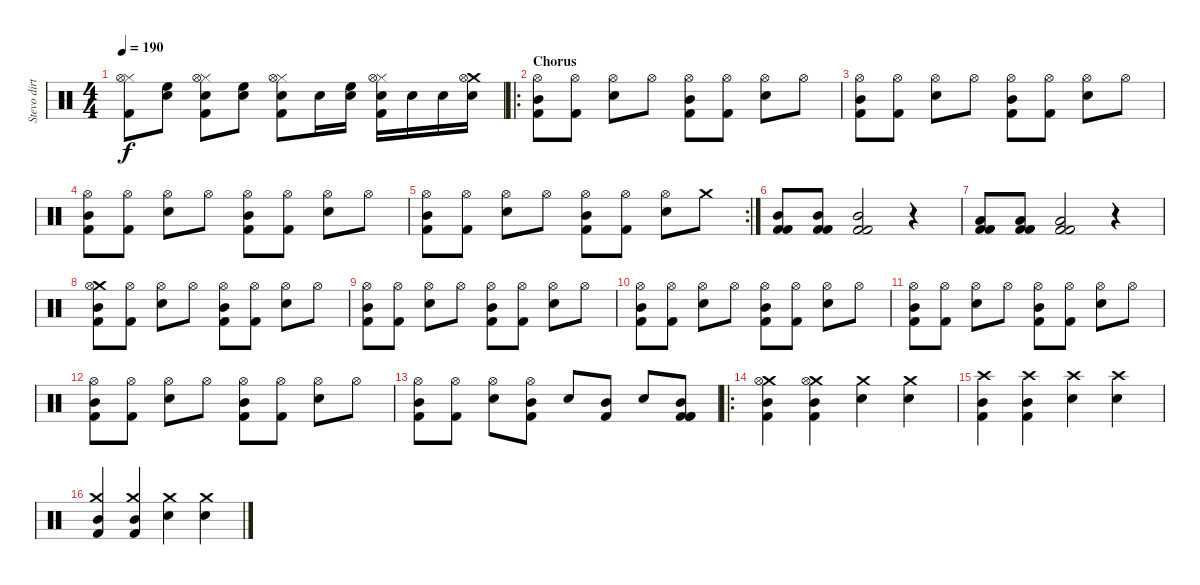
\track ("Stevo dirty poo (drummer)" "Stevo dirt") {instrument percussion}
\staff {score}
\articulation defaults
\ts (4 4)
\tempo 190
\clef neutral
\ks c
("Hi-Hat (closed)" "Hi-Hat (open)" "Kick (hit) 2").8{dy f} ("High Floor Tom (hit)" "Snare (hit) 2").8 ("Hi-Hat (closed)" "Snare (hit) 2" "Hi-Hat (open)" "Kick (hit) 2").8 ("High Floor Tom (hit)" "Snare (hit) 2").8 ("Hi-Hat (closed)" "Snare (hit) 2" "Hi-Hat (open)" "Kick (hit) 2").8 "Snare (hit) 2".16 ("High Floor Tom (hit)" "Snare (hit) 2").16 ("Hi-Hat (closed)" "Snare (hit) 2" "Hi-Hat (open)" "Kick (hit) 2").16 "Snare (hit) 2".16 "Snare (hit) 2".16 ("Crash medium (hit)" "Snare (hit) 2" "Hi-Hat (open)").16 |
\ro
\section ("" "Chorus")
("Mid Tom (hit)" "Hi-Hat (open)" "Kick (hit) 2").8 ("Hi-Hat (open)" "Kick (hit) 2").8 ("Snare (hit) 2" "Hi-Hat (open)").8 "Hi-Hat (open)".8 ("Mid Tom (hit)" "Hi-Hat (open)" "Kick (hit) 2").8 ("Hi-Hat (open)" "Kick (hit) 2").8 ("Snare (hit) 2" "Hi-Hat (open)").8 "Hi-Hat (open)".8 |
("Mid Tom (hit)" "Hi-Hat (open)" "Kick (hit) 2").8 ("Hi-Hat (open)" "Kick (hit) 2").8 ("Snare (hit) 2" "Hi-Hat (open)").8 "Hi-Hat (open)".8 ("Mid Tom (hit)" "Hi-Hat (open)" "Kick (hit) 2").8 ("Hi-Hat (open)" "Kick (hit) 2").8 ("Snare (hit) 2" "Hi-Hat (open)").8 "Hi-Hat (open)".8 |
("Mid Tom (hit)" "Hi-Hat (open)" "Kick (hit) 2").8 ("Hi-Hat (open)" "Kick (hit) 2").8 ("Snare (hit) 2" "Hi-Hat (open)").8 "Hi-Hat (open)".8 ("Mid Tom (hit)" "Hi-Hat (open)" "Kick (hit) 2").8 ("Hi-Hat (open)" "Kick (hit) 2").8 ("Snare (hit) 2" "Hi-Hat (open)").8 "Hi-Hat (open)".8 |
\rc 2
("Mid Tom (hit)" "Hi-Hat (open)" "Kick (hit) 2").8 ("Hi-Hat (open)" "Kick (hit) 2").8 ("Snare (hit) 2" "Hi-Hat (open)").8 "Hi-Hat (open)".8 ("Mid Tom (hit)" "Hi-Hat (open)" "Kick (hit) 2").8 ("Hi-Hat (open)" "Kick (hit) 2").8 ("Snare (hit) 2" "Hi-Hat (open)").8 "Crash medium (hit)".8 |
("Mid Tom (hit)" "Kick (hit) 2" "Kick (hit) 2").8 ("Mid Tom (hit)" "Kick (hit) 2" "Kick (hit) 2").8 ("Mid Tom (hit)" "Kick (hit) 2" "Kick (hit) 2").2 r.4 |
("Low Tom (hit)" "Kick (hit) 2" "Kick (hit) 2").8 ("Low Tom (hit)" "Kick (hit) 2" "Kick (hit) 2").8 ("Low Tom (hit)" "Kick (hit) 2" "Kick (hit) 2").2 r.4 |
("Crash medium (hit)" "Mid Tom (hit)" "Hi-Hat (open)" "Kick (hit) 2").8 ("Hi-Hat (open)" "Kick (hit) 2").8 ("Snare (hit) 2" "Hi-Hat (open)").8 "Hi-Hat (open)".8 ("Mid Tom (hit)" "Hi-Hat (open)" "Kick (hit) 2").8 ("Hi-Hat (open)" "Kick (hit) 2").8 ("Snare (hit) 2" "Hi-Hat (open)").8 "Hi-Hat (open)".8 |
("Mid Tom (hit)" "Hi-Hat (open)" "Kick (hit) 2").8 ("Hi-Hat (open)" "Kick (hit) 2").8 ("Snare (hit) 2" "Hi-Hat (open)").8 "Hi-Hat (open)".8 ("Mid Tom (hit)" "Hi-Hat (open)" "Kick (hit) 2").8 ("Hi-Hat (open)" "Kick (hit) 2").8 ("Snare (hit) 2" "Hi-Hat (open)").8 "Hi-Hat (open)".8 |
("Mid Tom (hit)" "Hi-Hat (open)" "Kick (hit) 2").8 ("Hi-Hat (open)" "Kick (hit) 2").8 ("Snare (hit) 2" "Hi-Hat (open)").8 "Hi-Hat (open)".8 ("Mid Tom (hit)" "Hi-Hat (open)" "Kick (hit) 2").8 ("Hi-Hat (open)" "Kick (hit) 2").8 ("Snare (hit) 2" "Hi-Hat (open)").8 "Hi-Hat (open)".8 |
("Mid Tom (hit)" "Hi-Hat (open)" "Kick (hit) 2").8 ("Hi-Hat (open)" "Kick (hit) 2").8 ("Snare (hit) 2" "Hi-Hat (open)").8 "Hi-Hat (open)".8 ("Mid Tom (hit)" "Hi-Hat (open)" "Kick (hit) 2").8 ("Hi-Hat (open)" "Kick (hit) 2").8 ("Snare (hit) 2" "Hi-Hat (open)").8 "Hi-Hat (open)".8 |
("Mid Tom (hit)" "Hi-Hat (open)" "Kick (hit) 2").8 ("Hi-Hat (open)" "Kick (hit) 2").8 ("Snare (hit) 2" "Hi-Hat (open)").8 "Hi-Hat (open)".8 ("Mid Tom (hit)" "Hi-Hat (open)" "Kick (hit) 2").8 ("Hi-Hat (open)" "Kick (hit) 2").8 ("Snare (hit) 2" "Hi-Hat (open)").8 "Hi-Hat (open)".8 |
("Mid Tom (hit)" "Hi-Hat (open)" "Kick (hit) 2").8 ("Hi-Hat (open)" "Kick (hit) 2").8 ("Snare (hit) 2" "Hi-Hat (open)").8 ("Mid Tom (hit)" "Hi-Hat (open)" "Kick (hit) 2").8 "Snare (hit) 2".8 ("Mid Tom (hit)" "Kick (hit) 2").8 "Snare (hit) 2".8 ("Kick (hit) 2" "Mid Tom (hit)" "Kick (hit) 2" "Kick (hit) 2").8 |
\ro
("Crash medium (hit)" "Mid Tom (hit)" "Hi-Hat (open)" "Kick (hit) 2").4 ("Crash medium (hit)" "Mid Tom (hit)" "Hi-Hat (open)" "Kick (hit) 2").4 ("Crash medium (hit)" "Snare (hit) 2").4 ("Crash medium (hit)" "Snare (hit) 2").4 |
("Crash high (hit)" "Mid Tom (hit)" "Kick (hit) 2").4 ("Crash high (hit)" "Mid Tom (hit)" "Kick (hit) 2").4 ("Crash high (hit)" "Snare (hit) 2").4 ("Crash high (hit)" "Snare (hit) 2").4 |
("Crash medium (hit)" "Mid Tom (hit)" "Kick (hit) 2").4 ("Crash medium (hit)" "Mid Tom (hit)" "Kick (hit) 2").4 ("Crash medium (hit)" "Snare (hit) 2").4 ("Crash medium (hit)" "Snare (hit) 2").4
